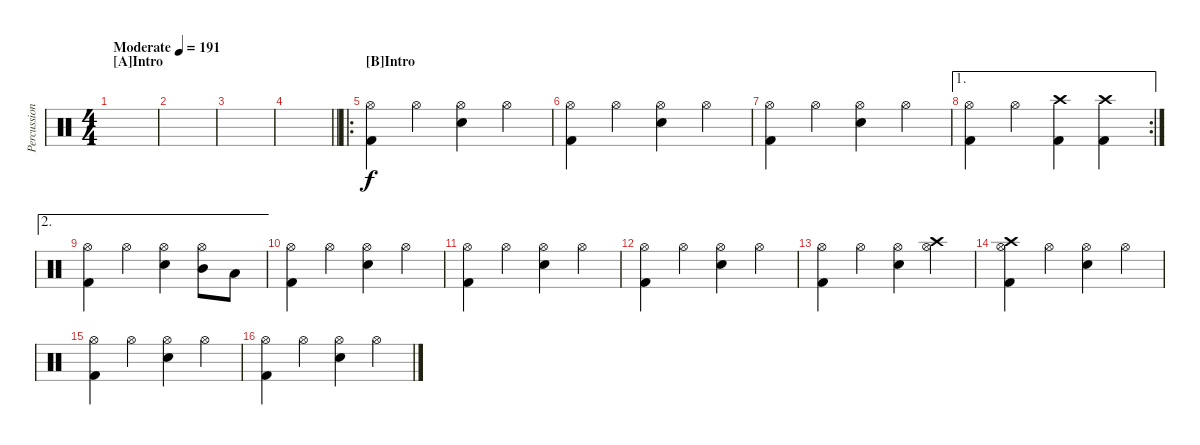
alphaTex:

\track ("Percussion" "Percussion") {instrument percussion}
\staff {score}
\articulation defaults
\ts (4 4)
\section ("" "[A]Intro")
\tempo (191 "Moderate")
\clef neutral
\ks c
|
|
|
\barLineRight lightlight
|
\ro
\section ("" "[B]Intro")
("Hi-Hat (open)" "Kick (hit) 2").4 "Hi-Hat (open)".4 ("Hi-Hat (open)" "Snare (hit) 2").4 "Hi-Hat (open)".4 |
("Hi-Hat (open)" "Kick (hit) 2").4 "Hi-Hat (open)".4 ("Hi-Hat (open)" "Snare (hit) 2").4 "Hi-Hat (open)".4 |
("Hi-Hat (open)" "Kick (hit) 2").4 "Hi-Hat (open)".4 ("Hi-Hat (open)" "Snare (hit) 2").4 "Hi-Hat (open)".4 |
\ae 1
\rc 2
("Hi-Hat (open)" "Kick (hit) 2").4 "Hi-Hat (open)".4 ("Crash high (hit)" "Kick (hit) 2").4 ("Crash high (hit)" "Kick (hit) 2").4 |
\ae 2
("Hi-Hat (open)" "Kick (hit) 2").4 "Hi-Hat (open)".4 ("Hi-Hat (open)" "Snare (hit) 2").4 ("Hi-Hat (open)" "Mid Tom (hit)").8 "Low Tom (hit)".8 |
("Hi-Hat (open)" "Kick (hit) 2").4 "Hi-Hat (open)".4 ("Hi-Hat (open)" "Snare (hit) 2").4 "Hi-Hat (open)".4 |
("Hi-Hat (open)" "Kick (hit) 2").4 "Hi-Hat (open)".4 ("Hi-Hat (open)" "Snare (hit) 2").4 "Hi-Hat (open)".4 |
("Hi-Hat (open)" "Kick (hit) 2").4 "Hi-Hat (open)".4 ("Hi-Hat (open)" "Snare (hit) 2").4 "Hi-Hat (open)".4 |
("Hi-Hat (open)" "Kick (hit) 2").4 "Hi-Hat (open)".4 ("Hi-Hat (open)" "Snare (hit) 2").4 ("Hi-Hat (open)" "Crash high (hit)").4 |
("Hi-Hat (open)" "Crash high (hit)" "Kick (hit) 2").4 "Hi-Hat (open)".4 ("Hi-Hat (open)" "Snare (hit) 2").4 "Hi-Hat (open)".4 |
("Hi-Hat (open)" "Kick (hit) 2").4 "Hi-Hat (open)".4 ("Hi-Hat (open)" "Snare (hit) 2").4 "Hi-Hat (open)".4 |
("Hi-Hat (open)" "Kick (hit) 2").4 "Hi-Hat (open)".4 ("Hi-Hat (open)" "Snare (hit) 2").4 "Hi-Hat (open)".4
